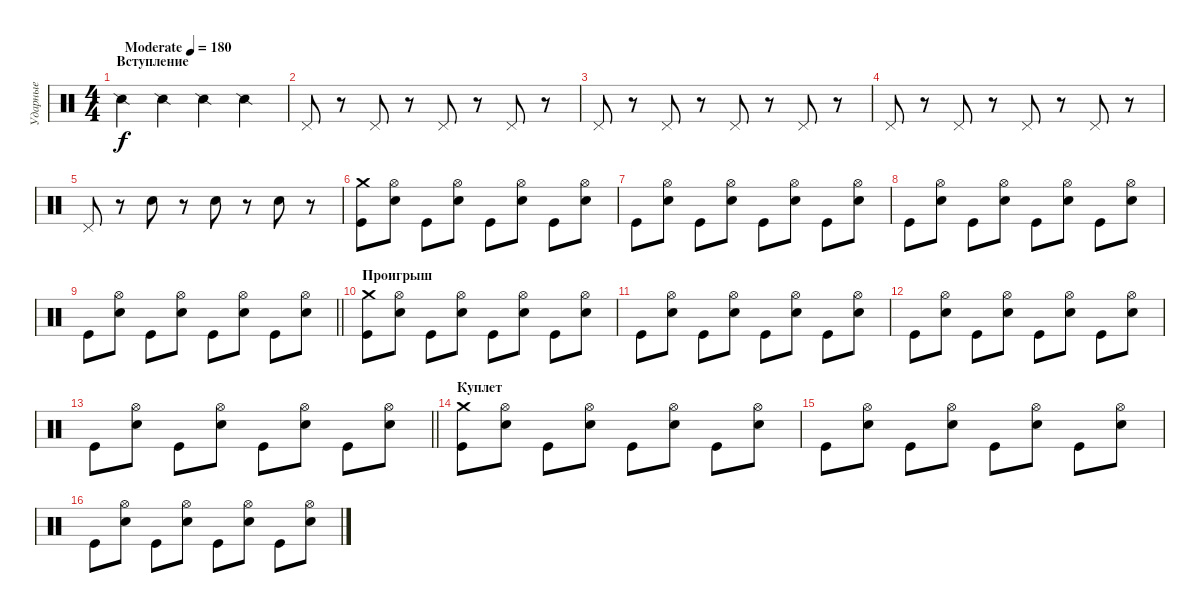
\track ("Ударные" "Ударные") {instrument percussion}
\staff {score}
\articulation defaults
\ts (4 4)
\section ("" "Вступление")
\tempo (180 "Moderate")
\clef neutral
\ks c "Snare (side stick) 2".4{dy f} "Snare (side stick) 2".4 "Snare (side stick) 2".4 "Snare (side stick) 2".4
|
"Pedal Hi-Hat (hit)".8 r.8 "Pedal Hi-Hat (hit)".8 r.8 "Pedal Hi-Hat (hit)".8 r.8 "Pedal Hi-Hat (hit)".8 r.8 |
"Pedal Hi-Hat (hit)".8 r.8 "Pedal Hi-Hat (hit)".8 r.8 "Pedal Hi-Hat (hit)".8 r.8 "Pedal Hi-Hat (hit)".8 r.8 |
"Pedal Hi-Hat (hit)".8 r.8 "Pedal Hi-Hat (hit)".8 r.8 "Pedal Hi-Hat (hit)".8 r.8 "Pedal Hi-Hat (hit)".8 r.8 |
"Pedal Hi-Hat (hit)".8 r.8 "Electric Snare (hit)".8 r.8 "Electric Snare (hit)".8 r.8 "Electric Snare (hit)".8 r.8 |
("Crash medium (hit)" "Kick (hit)").8 ("Hi-Hat (open)" "Electric Snare (hit)").8 "Kick (hit)".8 ("Hi-Hat (open)" "Electric Snare (hit)").8 "Kick (hit)".8 ("Hi-Hat (open)" "Electric Snare (hit)").8 "Kick (hit)".8 ("Hi-Hat (open)" "Electric Snare (hit)").8 |
"Kick (hit)".8 ("Hi-Hat (open)" "Electric Snare (hit)").8 "Kick (hit)".8 ("Hi-Hat (open)" "Electric Snare (hit)").8 "Kick (hit)".8 ("Hi-Hat (open)" "Electric Snare (hit)").8 "Kick (hit)".8 ("Hi-Hat (open)" "Electric Snare (hit)").8 |
"Kick (hit)".8 ("Hi-Hat (open)" "Electric Snare (hit)").8 "Kick (hit)".8 ("Hi-Hat (open)" "Electric Snare (hit)").8 "Kick (hit)".8 ("Hi-Hat (open)" "Electric Snare (hit)").8 "Kick (hit)".8 ("Hi-Hat (open)" "Electric Snare (hit)").8 |
\barLineRight lightlight "Kick (hit)".8
("Hi-Hat (open)" "Electric Snare (hit)").8 "Kick (hit)".8 ("Hi-Hat (open)" "Electric Snare (hit)").8 "Kick (hit)".8 ("Hi-Hat (open)" "Electric Snare (hit)").8 "Kick (hit)".8 ("Hi-Hat (open)" "Electric Snare (hit)").8 |
\section ("" "Проигрыш")
("Crash medium (hit)" "Kick (hit)").8 ("Hi-Hat (open)" "Electric Snare (hit)").8 "Kick (hit)".8 ("Hi-Hat (open)" "Electric Snare (hit)").8 "Kick (hit)".8 ("Hi-Hat (open)" "Electric Snare (hit)").8 "Kick (hit)".8 ("Hi-Hat (open)" "Electric Snare (hit)").8 |
"Kick (hit)".8 ("Hi-Hat (open)" "Electric Snare (hit)").8 "Kick (hit)".8 ("Hi-Hat (open)" "Electric Snare (hit)").8 "Kick (hit)".8 ("Hi-Hat (open)" "Electric Snare (hit)").8 "Kick (hit)".8 ("Hi-Hat (open)" "Electric Snare (hit)").8 |
"Kick (hit)".8 ("Hi-Hat (open)" "Electric Snare (hit)").8 "Kick (hit)".8 ("Hi-Hat (open)" "Electric Snare (hit)").8 "Kick (hit)".8 ("Hi-Hat (open)" "Electric Snare (hit)").8 "Kick (hit)".8 ("Hi-Hat (open)" "Electric Snare (hit)").8 |
\barLineRight lightlight "Kick (hit)".8
("Hi-Hat (open)" "Electric Snare (hit)").8 "Kick (hit)".8 ("Hi-Hat (open)" "Electric Snare (hit)").8 "Kick (hit)".8 ("Hi-Hat (open)" "Electric Snare (hit)").8 "Kick (hit)".8 ("Hi-Hat (open)" "Electric Snare (hit)").8 |
\section ("" "Куплет")
("Crash medium (hit)" "Kick (hit)").8 ("Hi-Hat (open)" "Electric Snare (hit)").8 "Kick (hit)".8 ("Hi-Hat (open)" "Electric Snare (hit)").8 "Kick (hit)".8 ("Hi-Hat (open)" "Electric Snare (hit)").8 "Kick (hit)".8 ("Hi-Hat (open)" "Electric Snare (hit)").8 |
"Kick (hit)".8 ("Hi-Hat (open)" "Electric Snare (hit)").8 "Kick (hit)".8 ("Hi-Hat (open)" "Electric Snare (hit)").8 "Kick (hit)".8 ("Hi-Hat (open)" "Electric Snare (hit)").8 "Kick (hit)".8 ("Hi-Hat (open)" "Electric Snare (hit)").8 |
"Kick (hit)".8 ("Hi-Hat (open)" "Electric Snare (hit)").8 "Kick (hit)".8 ("Hi-Hat (open)" "Electric Snare (hit)").8 "Kick (hit)".8 ("Hi-Hat (open)" "Electric Snare (hit)").8 "Kick (hit)".8 ("Hi-Hat (open)" "Electric Snare (hit)").8
